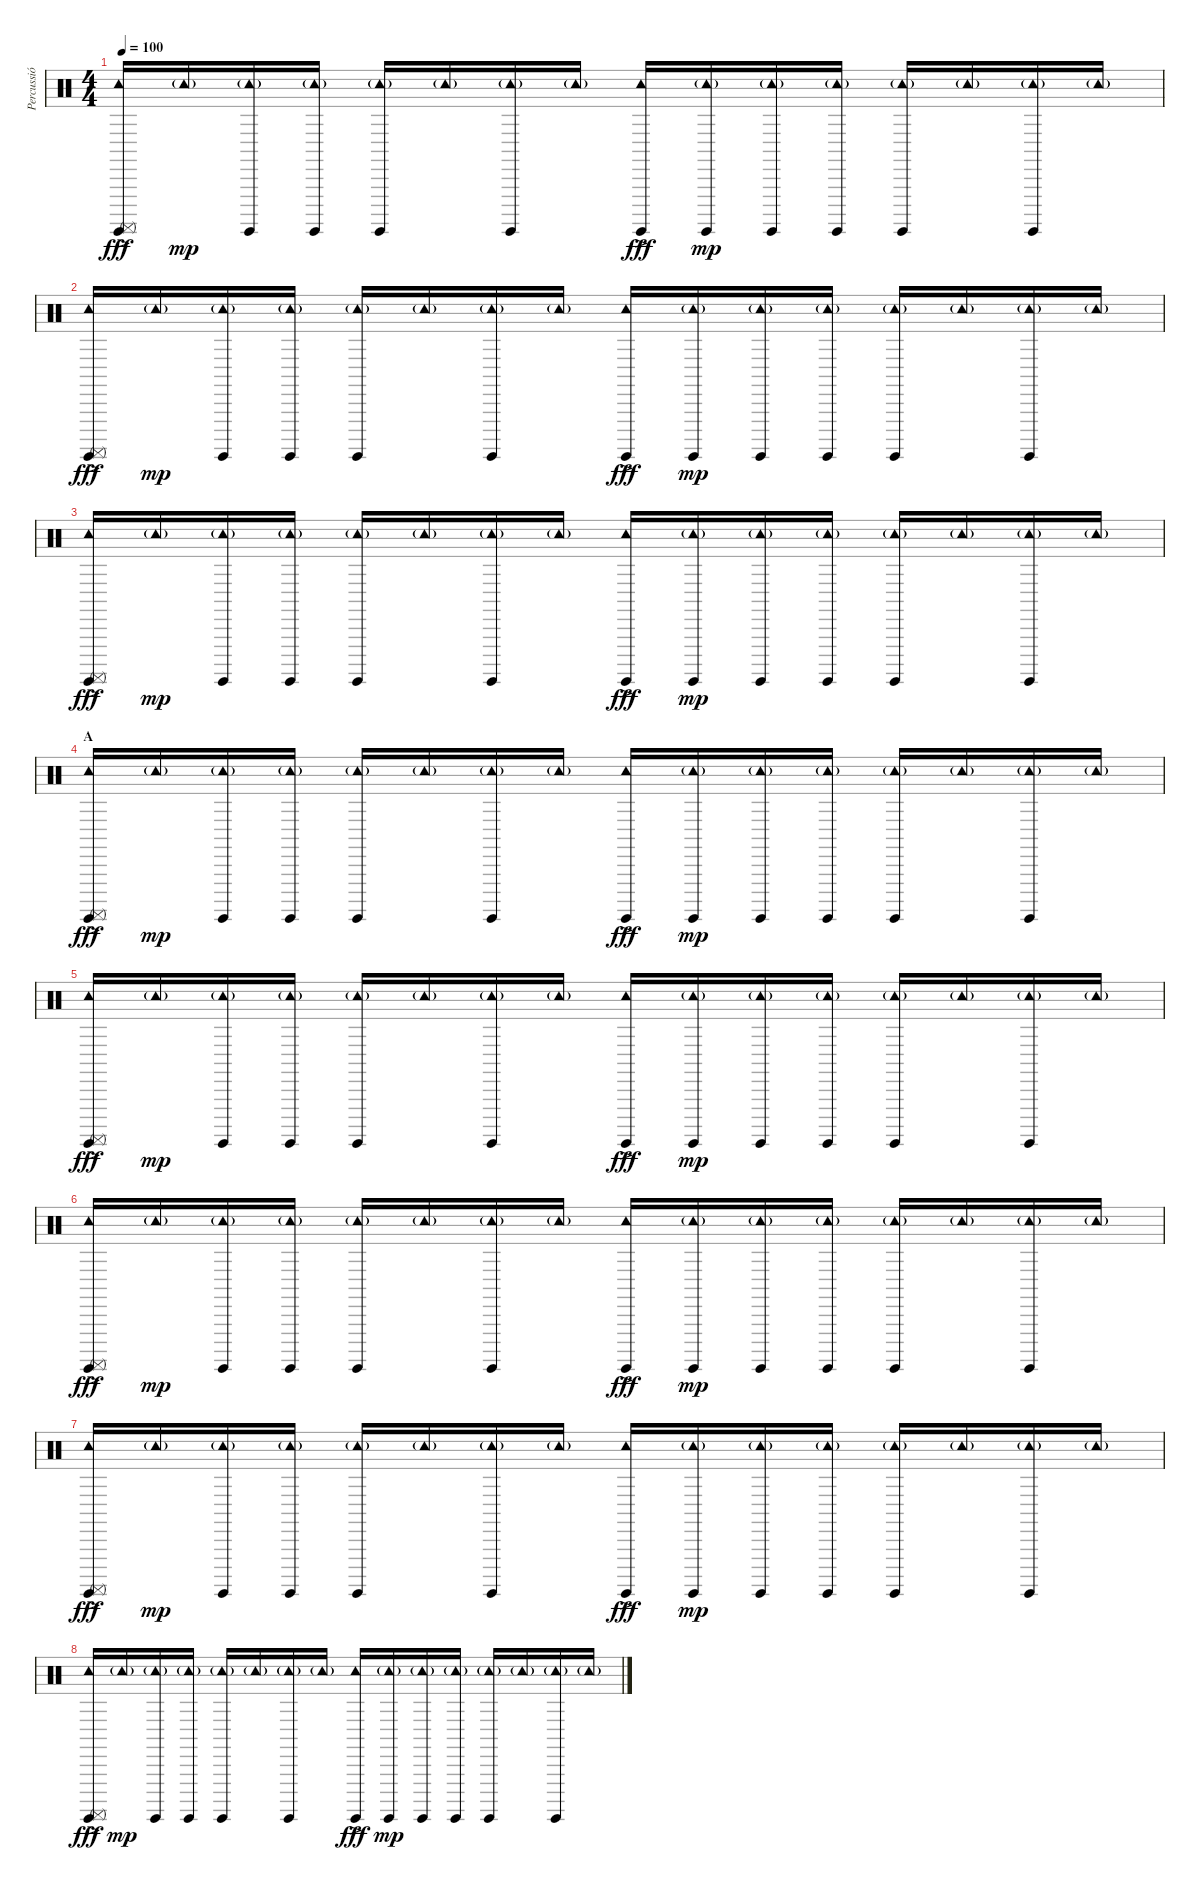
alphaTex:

\track ("Percussió" "Percussió") {instrument percussion}
\staff {score}
\articulation defaults
\ts (4 4)
\tempo 100
\clef neutral
\ks c
("Tambourine (hit)"{ac} "Surdo (hit)" "Surdo (mute)"{ac}).16{dy fff} "Tambourine (hit)"{g}.16{dy mp} ("Tambourine (hit)"{g} "Surdo (hit)").16 ("Tambourine (hit)"{g} "Surdo (hit)").16 ("Tambourine (hit)"{g} "Surdo (hit)").16 "Tambourine (hit)"{g}.16 ("Tambourine (hit)"{g} "Surdo (hit)").16 "Tambourine (hit)"{g}.16 ("Tambourine (hit)"{ac} "Surdo (hit)"{ac}).16{dy fff} ("Tambourine (hit)"{g} "Surdo (hit)").16{dy mp} ("Tambourine (hit)"{g} "Surdo (hit)").16 ("Tambourine (hit)"{g} "Surdo (hit)").16 ("Tambourine (hit)"{g} "Surdo (hit)").16 "Tambourine (hit)"{g}.16 ("Tambourine (hit)"{g} "Surdo (hit)").16 "Tambourine (hit)"{g}.16 |
("Tambourine (hit)"{ac} "Surdo (hit)" "Surdo (mute)"{ac}).16{dy fff} "Tambourine (hit)"{g}.16{dy mp} ("Tambourine (hit)"{g} "Surdo (hit)").16 ("Tambourine (hit)"{g} "Surdo (hit)").16 ("Tambourine (hit)"{g} "Surdo (hit)").16 "Tambourine (hit)"{g}.16 ("Tambourine (hit)"{g} "Surdo (hit)").16 "Tambourine (hit)"{g}.16 ("Tambourine (hit)"{ac} "Surdo (hit)"{ac}).16{dy fff} ("Tambourine (hit)"{g} "Surdo (hit)").16{dy mp} ("Tambourine (hit)"{g} "Surdo (hit)").16 ("Tambourine (hit)"{g} "Surdo (hit)").16 ("Tambourine (hit)"{g} "Surdo (hit)").16 "Tambourine (hit)"{g}.16 ("Tambourine (hit)"{g} "Surdo (hit)").16 "Tambourine (hit)"{g}.16 |
("Tambourine (hit)"{ac} "Surdo (hit)" "Surdo (mute)"{ac}).16{dy fff} "Tambourine (hit)"{g}.16{dy mp} ("Tambourine (hit)"{g} "Surdo (hit)").16 ("Tambourine (hit)"{g} "Surdo (hit)").16 ("Tambourine (hit)"{g} "Surdo (hit)").16 "Tambourine (hit)"{g}.16 ("Tambourine (hit)"{g} "Surdo (hit)").16 "Tambourine (hit)"{g}.16 ("Tambourine (hit)"{ac} "Surdo (hit)"{ac}).16{dy fff} ("Tambourine (hit)"{g} "Surdo (hit)").16{dy mp} ("Tambourine (hit)"{g} "Surdo (hit)").16 ("Tambourine (hit)"{g} "Surdo (hit)").16 ("Tambourine (hit)"{g} "Surdo (hit)").16 "Tambourine (hit)"{g}.16 ("Tambourine (hit)"{g} "Surdo (hit)").16 "Tambourine (hit)"{g}.16 |
\section ("" "A")
("Tambourine (hit)"{ac} "Surdo (hit)" "Surdo (mute)"{ac}).16{dy fff} "Tambourine (hit)"{g}.16{dy mp} ("Tambourine (hit)"{g} "Surdo (hit)").16 ("Tambourine (hit)"{g} "Surdo (hit)").16 ("Tambourine (hit)"{g} "Surdo (hit)").16 "Tambourine (hit)"{g}.16 ("Tambourine (hit)"{g} "Surdo (hit)").16 "Tambourine (hit)"{g}.16 ("Tambourine (hit)"{ac} "Surdo (hit)"{ac}).16{dy fff} ("Tambourine (hit)"{g} "Surdo (hit)").16{dy mp} ("Tambourine (hit)"{g} "Surdo (hit)").16 ("Tambourine (hit)"{g} "Surdo (hit)").16 ("Tambourine (hit)"{g} "Surdo (hit)").16 "Tambourine (hit)"{g}.16 ("Tambourine (hit)"{g} "Surdo (hit)").16 "Tambourine (hit)"{g}.16 |
("Tambourine (hit)"{ac} "Surdo (hit)" "Surdo (mute)"{ac}).16{dy fff} "Tambourine (hit)"{g}.16{dy mp} ("Tambourine (hit)"{g} "Surdo (hit)").16 ("Tambourine (hit)"{g} "Surdo (hit)").16 ("Tambourine (hit)"{g} "Surdo (hit)").16 "Tambourine (hit)"{g}.16 ("Tambourine (hit)"{g} "Surdo (hit)").16 "Tambourine (hit)"{g}.16 ("Tambourine (hit)"{ac} "Surdo (hit)"{ac}).16{dy fff} ("Tambourine (hit)"{g} "Surdo (hit)").16{dy mp} ("Tambourine (hit)"{g} "Surdo (hit)").16 ("Tambourine (hit)"{g} "Surdo (hit)").16 ("Tambourine (hit)"{g} "Surdo (hit)").16 "Tambourine (hit)"{g}.16 ("Tambourine (hit)"{g} "Surdo (hit)").16 "Tambourine (hit)"{g}.16 |
("Tambourine (hit)"{ac} "Surdo (hit)" "Surdo (mute)"{ac}).16{dy fff} "Tambourine (hit)"{g}.16{dy mp} ("Tambourine (hit)"{g} "Surdo (hit)").16 ("Tambourine (hit)"{g} "Surdo (hit)").16 ("Tambourine (hit)"{g} "Surdo (hit)").16 "Tambourine (hit)"{g}.16 ("Tambourine (hit)"{g} "Surdo (hit)").16 "Tambourine (hit)"{g}.16 ("Tambourine (hit)"{ac} "Surdo (hit)"{ac}).16{dy fff} ("Tambourine (hit)"{g} "Surdo (hit)").16{dy mp} ("Tambourine (hit)"{g} "Surdo (hit)").16 ("Tambourine (hit)"{g} "Surdo (hit)").16 ("Tambourine (hit)"{g} "Surdo (hit)").16 "Tambourine (hit)"{g}.16 ("Tambourine (hit)"{g} "Surdo (hit)").16 "Tambourine (hit)"{g}.16 |
("Tambourine (hit)"{ac} "Surdo (hit)" "Surdo (mute)"{ac}).16{dy fff} "Tambourine (hit)"{g}.16{dy mp} ("Tambourine (hit)"{g} "Surdo (hit)").16 ("Tambourine (hit)"{g} "Surdo (hit)").16 ("Tambourine (hit)"{g} "Surdo (hit)").16 "Tambourine (hit)"{g}.16 ("Tambourine (hit)"{g} "Surdo (hit)").16 "Tambourine (hit)"{g}.16 ("Tambourine (hit)"{ac} "Surdo (hit)"{ac}).16{dy fff} ("Tambourine (hit)"{g} "Surdo (hit)").16{dy mp} ("Tambourine (hit)"{g} "Surdo (hit)").16 ("Tambourine (hit)"{g} "Surdo (hit)").16 ("Tambourine (hit)"{g} "Surdo (hit)").16 "Tambourine (hit)"{g}.16 ("Tambourine (hit)"{g} "Surdo (hit)").16 "Tambourine (hit)"{g}.16 |
("Tambourine (hit)"{ac} "Surdo (hit)" "Surdo (mute)"{ac}).16{dy fff} "Tambourine (hit)"{g}.16{dy mp} ("Tambourine (hit)"{g} "Surdo (hit)").16 ("Tambourine (hit)"{g} "Surdo (hit)").16 ("Tambourine (hit)"{g} "Surdo (hit)").16 "Tambourine (hit)"{g}.16 ("Tambourine (hit)"{g} "Surdo (hit)").16 "Tambourine (hit)"{g}.16 ("Tambourine (hit)"{ac} "Surdo (hit)"{ac}).16{dy fff} ("Tambourine (hit)"{g} "Surdo (hit)").16{dy mp} ("Tambourine (hit)"{g} "Surdo (hit)").16 ("Tambourine (hit)"{g} "Surdo (hit)").16 ("Tambourine (hit)"{g} "Surdo (hit)").16 "Tambourine (hit)"{g}.16 ("Tambourine (hit)"{g} "Surdo (hit)").16 "Tambourine (hit)"{g}.16
